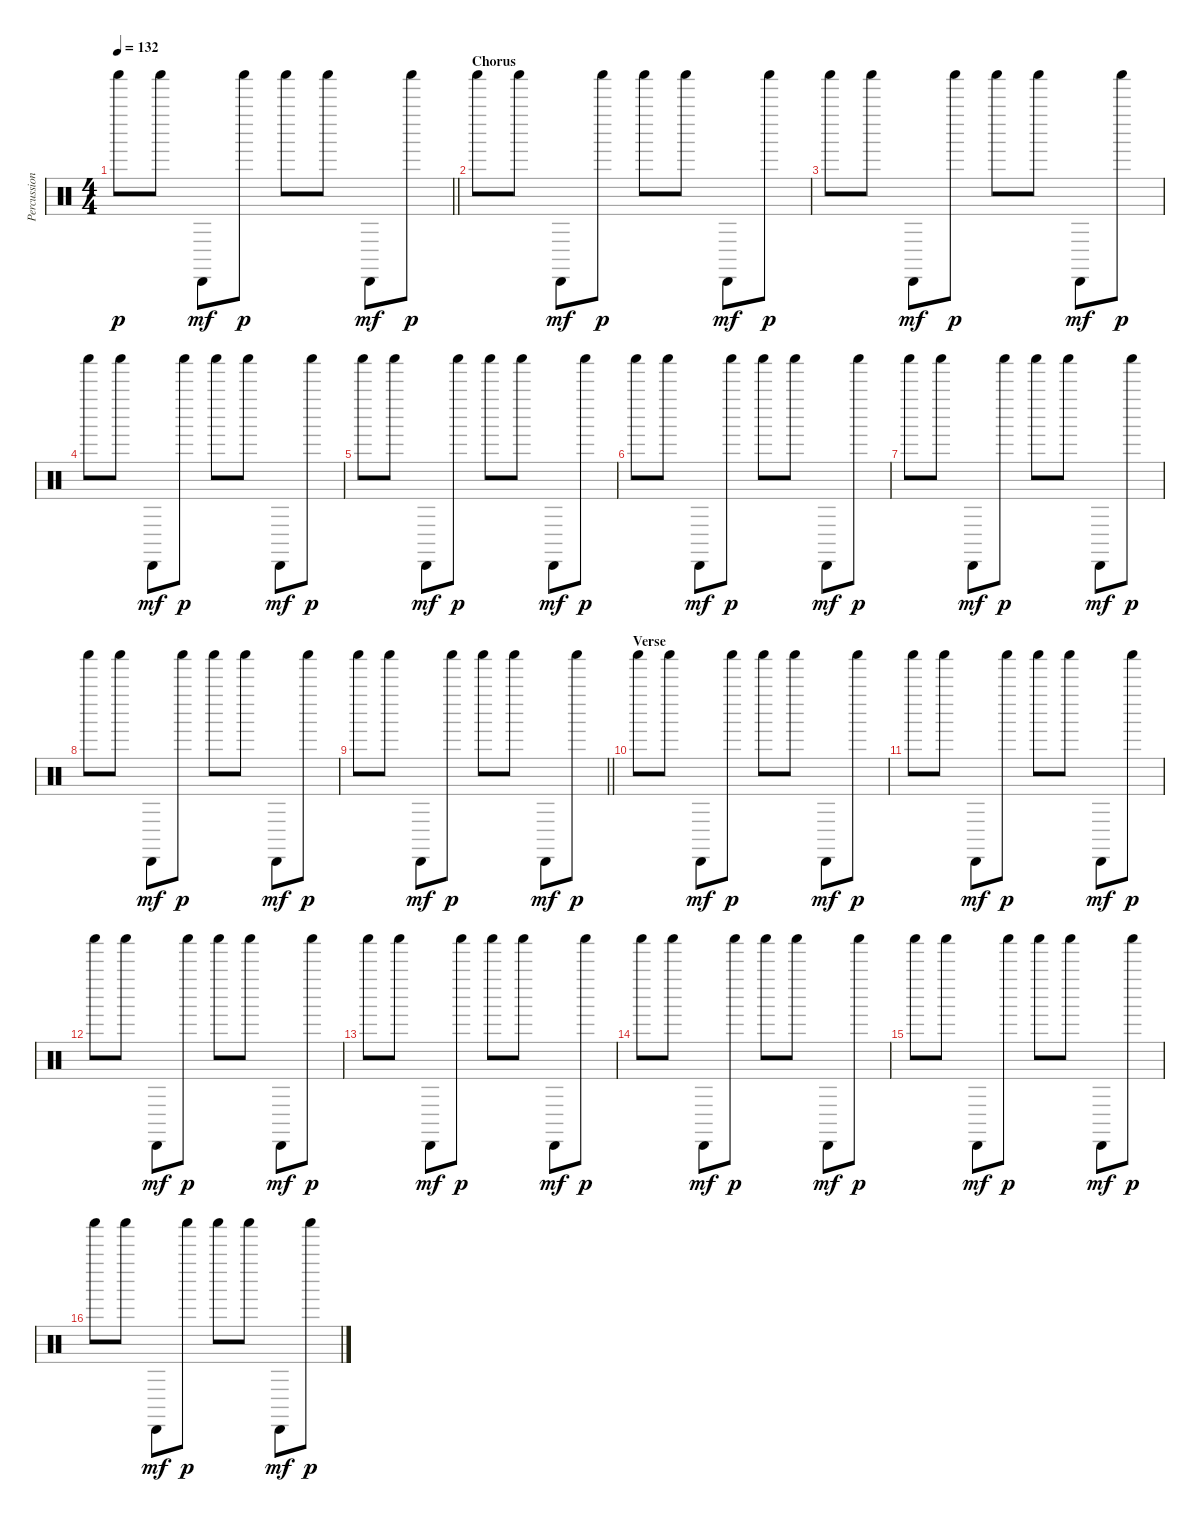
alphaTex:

\track ("Percussions" "Percussion") {instrument percussion}
\staff {score}
\articulation defaults
\ts (4 4)
\tempo 132
\clef neutral
\barLineRight lightlight
\ks c "Shaker (hit)".8{dy p} "Shaker (hit)".8 "Cabasa (hit)".8{dy mf} "Shaker (hit)".8{dy p} "Shaker (hit)".8 "Shaker (hit)".8 "Cabasa (hit)".8{dy mf} "Shaker (hit)".8{dy p}
|
\section ("" "Chorus")
"Shaker (hit)".8 "Shaker (hit)".8 "Cabasa (hit)".8{dy mf} "Shaker (hit)".8{dy p} "Shaker (hit)".8 "Shaker (hit)".8 "Cabasa (hit)".8{dy mf} "Shaker (hit)".8{dy p} |
"Shaker (hit)".8 "Shaker (hit)".8 "Cabasa (hit)".8{dy mf} "Shaker (hit)".8{dy p} "Shaker (hit)".8 "Shaker (hit)".8 "Cabasa (hit)".8{dy mf} "Shaker (hit)".8{dy p} |
"Shaker (hit)".8 "Shaker (hit)".8 "Cabasa (hit)".8{dy mf} "Shaker (hit)".8{dy p} "Shaker (hit)".8 "Shaker (hit)".8 "Cabasa (hit)".8{dy mf} "Shaker (hit)".8{dy p} |
"Shaker (hit)".8 "Shaker (hit)".8 "Cabasa (hit)".8{dy mf} "Shaker (hit)".8{dy p} "Shaker (hit)".8 "Shaker (hit)".8 "Cabasa (hit)".8{dy mf} "Shaker (hit)".8{dy p} |
"Shaker (hit)".8 "Shaker (hit)".8 "Cabasa (hit)".8{dy mf} "Shaker (hit)".8{dy p} "Shaker (hit)".8 "Shaker (hit)".8 "Cabasa (hit)".8{dy mf} "Shaker (hit)".8{dy p} |
"Shaker (hit)".8 "Shaker (hit)".8 "Cabasa (hit)".8{dy mf} "Shaker (hit)".8{dy p} "Shaker (hit)".8 "Shaker (hit)".8 "Cabasa (hit)".8{dy mf} "Shaker (hit)".8{dy p} |
"Shaker (hit)".8 "Shaker (hit)".8 "Cabasa (hit)".8{dy mf} "Shaker (hit)".8{dy p} "Shaker (hit)".8 "Shaker (hit)".8 "Cabasa (hit)".8{dy mf} "Shaker (hit)".8{dy p} |
\barLineRight lightlight "Shaker (hit)".8 "Shaker (hit)".8 "Cabasa (hit)".8{dy mf} "Shaker (hit)".8{dy p} "Shaker (hit)".8 "Shaker (hit)".8 "Cabasa (hit)".8{dy mf} "Shaker (hit)".8{dy p}
|
\section ("" "Verse")
"Shaker (hit)".8 "Shaker (hit)".8 "Cabasa (hit)".8{dy mf} "Shaker (hit)".8{dy p} "Shaker (hit)".8 "Shaker (hit)".8 "Cabasa (hit)".8{dy mf} "Shaker (hit)".8{dy p} |
"Shaker (hit)".8 "Shaker (hit)".8 "Cabasa (hit)".8{dy mf} "Shaker (hit)".8{dy p} "Shaker (hit)".8 "Shaker (hit)".8 "Cabasa (hit)".8{dy mf} "Shaker (hit)".8{dy p} |
"Shaker (hit)".8 "Shaker (hit)".8 "Cabasa (hit)".8{dy mf} "Shaker (hit)".8{dy p} "Shaker (hit)".8 "Shaker (hit)".8 "Cabasa (hit)".8{dy mf} "Shaker (hit)".8{dy p} |
"Shaker (hit)".8 "Shaker (hit)".8 "Cabasa (hit)".8{dy mf} "Shaker (hit)".8{dy p} "Shaker (hit)".8 "Shaker (hit)".8 "Cabasa (hit)".8{dy mf} "Shaker (hit)".8{dy p} |
"Shaker (hit)".8 "Shaker (hit)".8 "Cabasa (hit)".8{dy mf} "Shaker (hit)".8{dy p} "Shaker (hit)".8 "Shaker (hit)".8 "Cabasa (hit)".8{dy mf} "Shaker (hit)".8{dy p} |
"Shaker (hit)".8 "Shaker (hit)".8 "Cabasa (hit)".8{dy mf} "Shaker (hit)".8{dy p} "Shaker (hit)".8 "Shaker (hit)".8 "Cabasa (hit)".8{dy mf} "Shaker (hit)".8{dy p} |
"Shaker (hit)".8 "Shaker (hit)".8 "Cabasa (hit)".8{dy mf} "Shaker (hit)".8{dy p} "Shaker (hit)".8 "Shaker (hit)".8 "Cabasa (hit)".8{dy mf} "Shaker (hit)".8{dy p}
